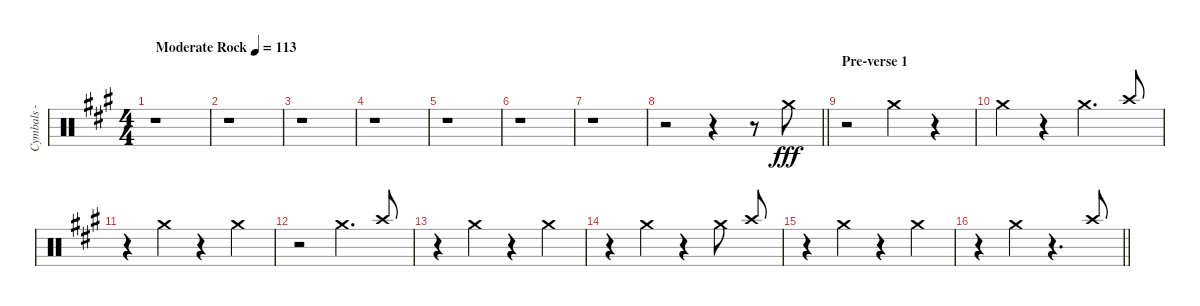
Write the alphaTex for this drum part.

\track ("Cymbals - crash" "Cymbals - ") {instrument percussion}
\staff {score}
\articulation defaults
\ts (4 4)
\tempo (113 "Moderate Rock")
\clef neutral
\ks f#minor
r.1{dy fff} |
r.1 |
r.1 |
r.1 |
r.1 |
r.1 |
r.1 |
\barLineRight lightlight
r.2 r.4 r.8{volume 2} "Crash medium (hit)".8 |
\section ("" "Pre-verse 1")
r.2 "Crash medium (hit)".4 r.4 |
"Crash medium (hit)".4 r.4 "Crash medium (hit)".4{d} "Crash high (hit)".8{beam Up} |
r.4 "Crash medium (hit)".4 r.4 "Crash medium (hit)".4 |
r.2 "Crash medium (hit)".4{d} "Crash high (hit)".8{beam Up} |
r.4 "Crash medium (hit)".4 r.4 "Crash medium (hit)".4 |
r.4 "Crash medium (hit)".4 r.4 "Crash medium (hit)".8{beam split} "Crash high (hit)".8{beam Up} |
r.4 "Crash medium (hit)".4 r.4 "Crash medium (hit)".4 |
\barLineRight lightlight
r.4 "Crash medium (hit)".4 r.4{d beam split} "Crash high (hit)".8{beam Up}
